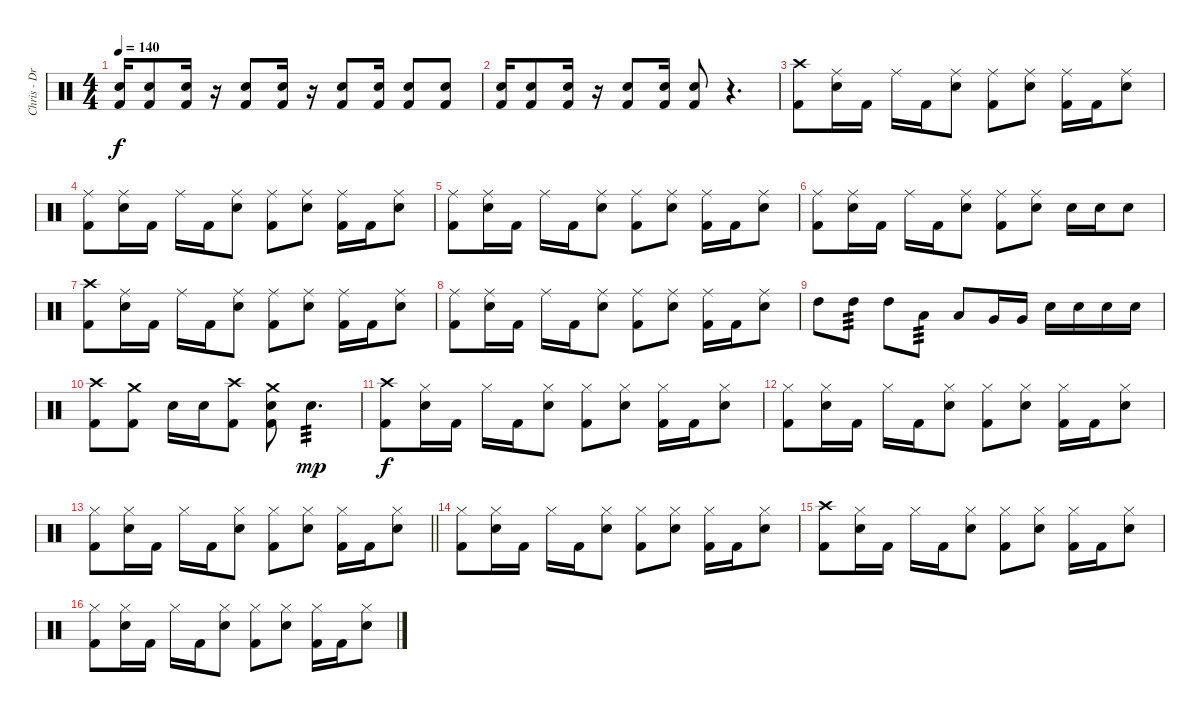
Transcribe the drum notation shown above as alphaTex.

\track ("Chris - Drums" "Chris - Dr") {instrument percussion}
\staff {score}
\articulation defaults
\ts (4 4)
\tempo 140
\clef neutral
\ks c
("Electric Snare (hit)" "Kick (hit) 2").16{dy f} ("Electric Snare (hit)" "Kick (hit) 2").8 ("Electric Snare (hit)" "Kick (hit) 2").16 r.16 ("Electric Snare (hit)" "Kick (hit) 2").8 ("Electric Snare (hit)" "Kick (hit) 2").16 r.16 ("Electric Snare (hit)" "Kick (hit) 2").8 ("Electric Snare (hit)" "Kick (hit) 2").16 ("Electric Snare (hit)" "Kick (hit) 2").8 ("Electric Snare (hit)" "Kick (hit) 2").8 |
("Electric Snare (hit)" "Kick (hit) 2").16 ("Electric Snare (hit)" "Kick (hit) 2").8 ("Electric Snare (hit)" "Kick (hit) 2").16 r.16 ("Electric Snare (hit)" "Kick (hit) 2").8 ("Electric Snare (hit)" "Kick (hit) 2").16 ("Electric Snare (hit)" "Kick (hit) 2").8 r.4{d} |
("Crash high (hit)" "Kick (hit) 2").8 ("Ride (middle)" "Electric Snare (hit)").16 "Kick (hit) 2".16 "Ride (middle)".16 "Kick (hit) 2".16 ("Ride (middle)" "Electric Snare (hit)").8 ("Ride (middle)" "Kick (hit) 2").8 ("Ride (middle)" "Electric Snare (hit)").8 ("Ride (middle)" "Kick (hit) 2").16 "Kick (hit) 2".16 ("Ride (middle)" "Electric Snare (hit)").8 |
("Ride (middle)" "Kick (hit) 2").8 ("Ride (middle)" "Electric Snare (hit)").16 "Kick (hit) 2".16 "Ride (middle)".16 "Kick (hit) 2".16 ("Ride (middle)" "Electric Snare (hit)").8 ("Ride (middle)" "Kick (hit) 2").8 ("Ride (middle)" "Electric Snare (hit)").8 ("Ride (middle)" "Kick (hit) 2").16 "Kick (hit) 2".16 ("Ride (middle)" "Electric Snare (hit)").8 |
("Ride (middle)" "Kick (hit) 2").8 ("Ride (middle)" "Electric Snare (hit)").16 "Kick (hit) 2".16 "Ride (middle)".16 "Kick (hit) 2".16 ("Ride (middle)" "Electric Snare (hit)").8 ("Ride (middle)" "Kick (hit) 2").8 ("Ride (middle)" "Electric Snare (hit)").8 ("Ride (middle)" "Kick (hit) 2").16 "Kick (hit) 2".16 ("Ride (middle)" "Electric Snare (hit)").8 |
("Ride (middle)" "Kick (hit) 2").8 ("Ride (middle)" "Electric Snare (hit)").16 "Kick (hit) 2".16 "Ride (middle)".16 "Kick (hit) 2".16 ("Ride (middle)" "Electric Snare (hit)").8 ("Ride (middle)" "Kick (hit) 2").8 ("Ride (middle)" "Electric Snare (hit)").8 "Electric Snare (hit)".16 "Electric Snare (hit)".16 "Electric Snare (hit)".8 |
("Crash high (hit)" "Kick (hit) 2").8 ("Ride (middle)" "Electric Snare (hit)").16 "Kick (hit) 2".16 "Ride (middle)".16 "Kick (hit) 2".16 ("Ride (middle)" "Electric Snare (hit)").8 ("Ride (middle)" "Kick (hit) 2").8 ("Ride (middle)" "Electric Snare (hit)").8 ("Ride (middle)" "Kick (hit) 2").16 "Kick (hit) 2".16 ("Ride (middle)" "Electric Snare (hit)").8 |
("Ride (middle)" "Kick (hit) 2").8 ("Ride (middle)" "Electric Snare (hit)").16 "Kick (hit) 2".16 "Ride (middle)".16 "Kick (hit) 2".16 ("Ride (middle)" "Electric Snare (hit)").8 ("Ride (middle)" "Kick (hit) 2").8 ("Ride (middle)" "Electric Snare (hit)").8 ("Ride (middle)" "Kick (hit) 2").16 "Kick (hit) 2".16 ("Ride (middle)" "Electric Snare (hit)").8 |
"High Tom (hit)".8 "High Tom (hit)".8{tp 3} "High Tom (hit)".8 "Low Tom (hit)".8{tp 3} "Low Tom (hit)".8 "Very Low Tom (hit)".16 "Very Low Tom (hit)".16 "Electric Snare (hit)".16 "Electric Snare (hit)".16 "Electric Snare (hit)".16 "Electric Snare (hit)".16 |
("Crash high (hit)" "Kick (hit) 2").8 ("Crash medium (hit)" "Kick (hit) 2").8 "Electric Snare (hit)".16 "Electric Snare (hit)".16 ("Crash high (hit)" "Kick (hit) 2").8 ("Crash medium (hit)" "Electric Snare (hit)" "Kick (hit) 2").8 "Electric Snare (hit)".4{d tp 3 dy mp} |
("Crash high (hit)" "Kick (hit) 2").8{dy f} ("Hi-Hat (closed)" "Electric Snare (hit)").16 "Kick (hit) 2".16 "Hi-Hat (closed)".16 "Kick (hit) 2".16 ("Hi-Hat (closed)" "Electric Snare (hit)").8 ("Hi-Hat (closed)" "Kick (hit) 2").8 ("Hi-Hat (closed)" "Electric Snare (hit)").8 ("Hi-Hat (closed)" "Kick (hit) 2").16 "Kick (hit) 2".16 ("Hi-Hat (closed)" "Electric Snare (hit)").8 |
("Hi-Hat (closed)" "Kick (hit) 2").8 ("Hi-Hat (closed)" "Electric Snare (hit)").16 "Kick (hit) 2".16 "Hi-Hat (closed)".16 "Kick (hit) 2".16 ("Hi-Hat (closed)" "Electric Snare (hit)").8 ("Hi-Hat (closed)" "Kick (hit) 2").8 ("Hi-Hat (closed)" "Electric Snare (hit)").8 ("Hi-Hat (closed)" "Kick (hit) 2").16 "Kick (hit) 2".16 ("Hi-Hat (closed)" "Electric Snare (hit)").8 |
\barLineRight lightlight
("Hi-Hat (closed)" "Kick (hit) 2").8 ("Hi-Hat (closed)" "Electric Snare (hit)").16 "Kick (hit) 2".16 "Hi-Hat (closed)".16 "Kick (hit) 2".16 ("Hi-Hat (closed)" "Electric Snare (hit)").8 ("Hi-Hat (closed)" "Kick (hit) 2").8 ("Hi-Hat (closed)" "Electric Snare (hit)").8 ("Hi-Hat (closed)" "Kick (hit) 2").16 "Kick (hit) 2".16 ("Hi-Hat (closed)" "Electric Snare (hit)").8 |
("Hi-Hat (closed)" "Kick (hit) 2").8 ("Hi-Hat (closed)" "Electric Snare (hit)").16 "Kick (hit) 2".16 "Hi-Hat (closed)".16 "Kick (hit) 2".16 ("Hi-Hat (closed)" "Electric Snare (hit)").8 ("Hi-Hat (closed)" "Kick (hit) 2").8 ("Hi-Hat (closed)" "Electric Snare (hit)").8 ("Hi-Hat (closed)" "Kick (hit) 2").16 "Kick (hit) 2".16 ("Hi-Hat (closed)" "Electric Snare (hit)").8 |
("Crash high (hit)" "Kick (hit) 2").8 ("Hi-Hat (closed)" "Electric Snare (hit)").16 "Kick (hit) 2".16 "Hi-Hat (closed)".16 "Kick (hit) 2".16 ("Hi-Hat (closed)" "Electric Snare (hit)").8 ("Hi-Hat (closed)" "Kick (hit) 2").8 ("Hi-Hat (closed)" "Electric Snare (hit)").8 ("Hi-Hat (closed)" "Kick (hit) 2").16 "Kick (hit) 2".16 ("Hi-Hat (closed)" "Electric Snare (hit)").8 |
("Hi-Hat (closed)" "Kick (hit) 2").8 ("Hi-Hat (closed)" "Electric Snare (hit)").16 "Kick (hit) 2".16 "Hi-Hat (closed)".16 "Kick (hit) 2".16 ("Hi-Hat (closed)" "Electric Snare (hit)").8 ("Hi-Hat (closed)" "Kick (hit) 2").8 ("Hi-Hat (closed)" "Electric Snare (hit)").8 ("Hi-Hat (closed)" "Kick (hit) 2").16 "Kick (hit) 2".16 ("Hi-Hat (closed)" "Electric Snare (hit)").8
